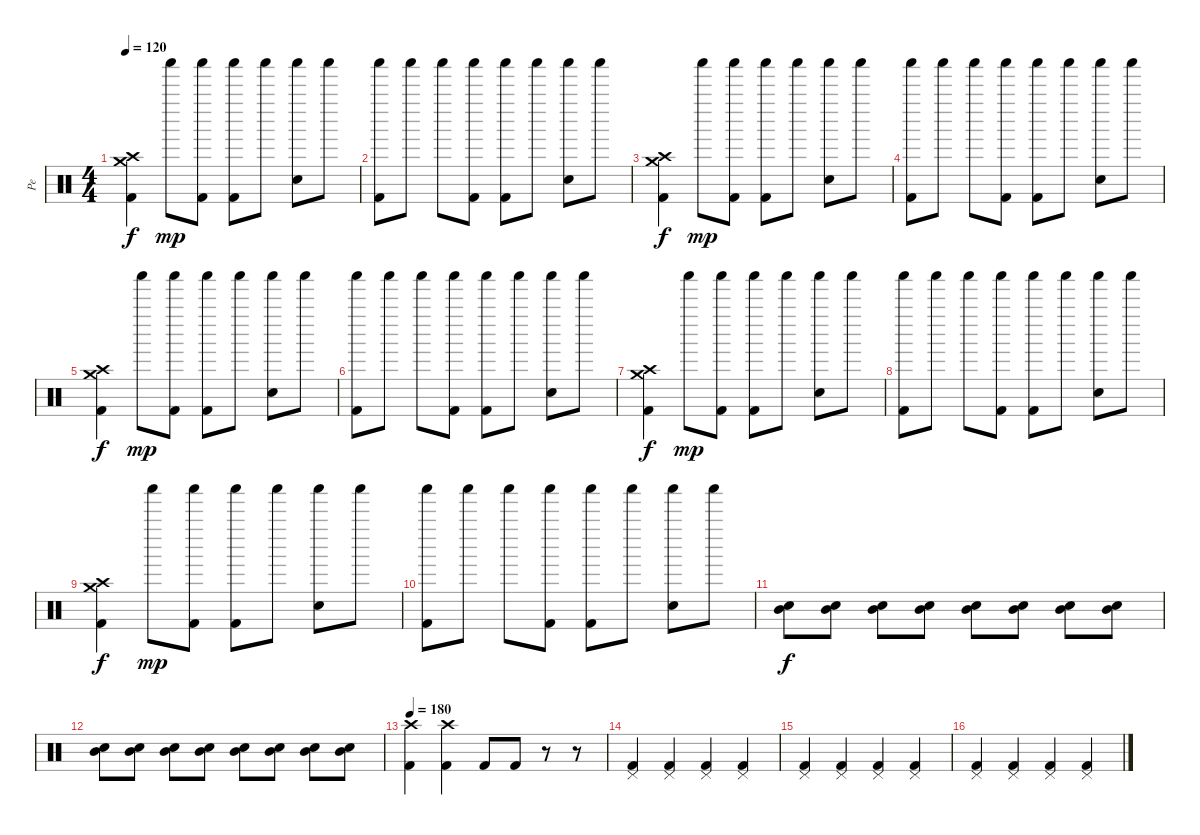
\track ("Pe" "Pe") {instrument percussion}
\staff {score}
\articulation defaults
\ts (4 4)
\tempo 120
\clef neutral
\ks c
("Crash high (hit)" "Crash medium (hit)" "Kick (hit) 2").4{dy f} "Shaker (hit)".8{dy mp} ("Shaker (hit)" "Kick (hit) 2").8 ("Shaker (hit)" "Kick (hit) 2").8 "Shaker (hit)".8 ("Shaker (hit)" "Electric Snare (hit)").8 "Shaker (hit)".8 |
("Shaker (hit)" "Kick (hit) 2").8 "Shaker (hit)".8 "Shaker (hit)".8 ("Shaker (hit)" "Kick (hit) 2").8 ("Shaker (hit)" "Kick (hit) 2").8 "Shaker (hit)".8 ("Shaker (hit)" "Electric Snare (hit)").8 "Shaker (hit)".8 |
("Crash high (hit)" "Crash medium (hit)" "Kick (hit) 2").4{dy f} "Shaker (hit)".8{dy mp} ("Shaker (hit)" "Kick (hit) 2").8 ("Shaker (hit)" "Kick (hit) 2").8 "Shaker (hit)".8 ("Shaker (hit)" "Electric Snare (hit)").8 "Shaker (hit)".8 |
("Shaker (hit)" "Kick (hit) 2").8 "Shaker (hit)".8 "Shaker (hit)".8 ("Shaker (hit)" "Kick (hit) 2").8 ("Shaker (hit)" "Kick (hit) 2").8 "Shaker (hit)".8 ("Shaker (hit)" "Electric Snare (hit)").8 "Shaker (hit)".8 |
("Crash high (hit)" "Crash medium (hit)" "Kick (hit) 2").4{dy f} "Shaker (hit)".8{dy mp} ("Shaker (hit)" "Kick (hit) 2").8 ("Shaker (hit)" "Kick (hit) 2").8 "Shaker (hit)".8 ("Shaker (hit)" "Electric Snare (hit)").8 "Shaker (hit)".8 |
("Shaker (hit)" "Kick (hit) 2").8 "Shaker (hit)".8 "Shaker (hit)".8 ("Shaker (hit)" "Kick (hit) 2").8 ("Shaker (hit)" "Kick (hit) 2").8 "Shaker (hit)".8 ("Shaker (hit)" "Electric Snare (hit)").8 "Shaker (hit)".8 |
("Crash high (hit)" "Crash medium (hit)" "Kick (hit) 2").4{dy f} "Shaker (hit)".8{dy mp} ("Shaker (hit)" "Kick (hit) 2").8 ("Shaker (hit)" "Kick (hit) 2").8 "Shaker (hit)".8 ("Shaker (hit)" "Electric Snare (hit)").8 "Shaker (hit)".8 |
("Shaker (hit)" "Kick (hit) 2").8 "Shaker (hit)".8 "Shaker (hit)".8 ("Shaker (hit)" "Kick (hit) 2").8 ("Shaker (hit)" "Kick (hit) 2").8 "Shaker (hit)".8 ("Shaker (hit)" "Electric Snare (hit)").8 "Shaker (hit)".8 |
("Crash high (hit)" "Crash medium (hit)" "Kick (hit) 2").4{dy f} "Shaker (hit)".8{dy mp} ("Shaker (hit)" "Kick (hit) 2").8 ("Shaker (hit)" "Kick (hit) 2").8 "Shaker (hit)".8 ("Shaker (hit)" "Electric Snare (hit)").8 "Shaker (hit)".8 |
("Shaker (hit)" "Kick (hit) 2").8 "Shaker (hit)".8 "Shaker (hit)".8 ("Shaker (hit)" "Kick (hit) 2").8 ("Shaker (hit)" "Kick (hit) 2").8 "Shaker (hit)".8 ("Shaker (hit)" "Electric Snare (hit)").8 "Shaker (hit)".8 |
("Mid Tom (hit)" "Snare (hit) 2").8{dy f} ("Mid Tom (hit)" "Snare (hit) 2").8 ("Mid Tom (hit)" "Snare (hit) 2").8 ("Mid Tom (hit)" "Snare (hit) 2").8 ("Mid Tom (hit)" "Snare (hit) 2").8 ("Mid Tom (hit)" "Snare (hit) 2").8 ("Mid Tom (hit)" "Snare (hit) 2").8 ("Mid Tom (hit)" "Snare (hit) 2").8 |
("Mid Tom (hit)" "Snare (hit) 2").8 ("Mid Tom (hit)" "Snare (hit) 2").8 ("Mid Tom (hit)" "Snare (hit) 2").8 ("Mid Tom (hit)" "Snare (hit) 2").8 ("Mid Tom (hit)" "Snare (hit) 2").8 ("Mid Tom (hit)" "Snare (hit) 2").8 ("Mid Tom (hit)" "Snare (hit) 2").8 ("Mid Tom (hit)" "Snare (hit) 2").8 |
\tempo 180
("Crash high (hit)" "Kick (hit) 2").4 ("Crash high (hit)" "Kick (hit) 2").4 "Kick (hit) 2".8 "Kick (hit) 2".8 r.8 r.8 |
("Pedal Hi-Hat (hit)" "Kick (hit) 2").4 ("Pedal Hi-Hat (hit)" "Kick (hit) 2").4 ("Pedal Hi-Hat (hit)" "Kick (hit) 2").4 ("Pedal Hi-Hat (hit)" "Kick (hit) 2").4 |
("Pedal Hi-Hat (hit)" "Kick (hit) 2").4 ("Pedal Hi-Hat (hit)" "Kick (hit) 2").4 ("Pedal Hi-Hat (hit)" "Kick (hit) 2").4 ("Pedal Hi-Hat (hit)" "Kick (hit) 2").4 |
("Pedal Hi-Hat (hit)" "Kick (hit) 2").4 ("Pedal Hi-Hat (hit)" "Kick (hit) 2").4 ("Pedal Hi-Hat (hit)" "Kick (hit) 2").4 ("Pedal Hi-Hat (hit)" "Kick (hit) 2").4
